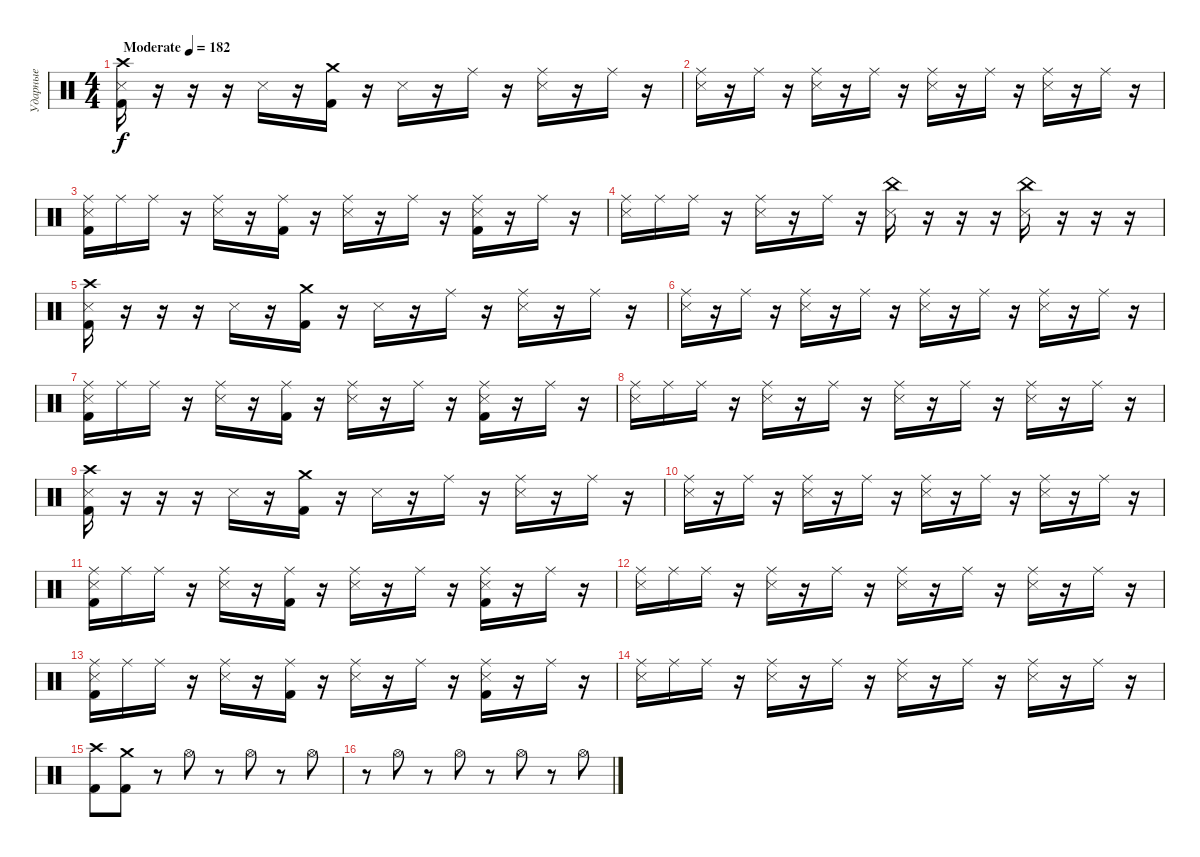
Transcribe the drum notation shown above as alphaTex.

\track ("Ударные" "Ударные") {instrument percussion}
\staff {score}
\articulation defaults
\ts (4 4)
\tempo (182 "Moderate")
\clef neutral
\ks c
("Crash high (hit)" "Snare (side stick) 3" "Kick (hit) 2").16{dy f} r.16 r.16 r.16 "Snare (side stick) 3".16 r.16 ("Crash medium (hit)" "Kick (hit) 2").16 r.16 "Snare (side stick) 3".16 r.16 "Ride (middle)".16 r.16 ("Ride (middle)" "Snare (side stick) 3").16 r.16 "Ride (middle)".16 r.16 |
("Ride (middle)" "Snare (side stick) 3").16 r.16 "Ride (middle)".16 r.16 ("Ride (middle)" "Snare (side stick) 3").16 r.16 "Ride (middle)".16 r.16 ("Ride (middle)" "Snare (side stick) 3").16 r.16 "Ride (middle)".16 r.16 ("Ride (middle)" "Snare (side stick) 3").16 r.16 "Ride (middle)".16 r.16 |
("Ride (middle)" "Snare (side stick) 3" "Kick (hit) 2").16 "Ride (middle)".16 "Ride (middle)".16 r.16 ("Ride (middle)" "Snare (side stick) 3").16 r.16 ("Ride (middle)" "Kick (hit) 2").16 r.16 ("Ride (middle)" "Snare (side stick) 3").16 r.16 "Ride (middle)".16 r.16 ("Ride (middle)" "Snare (side stick) 3" "Kick (hit) 2").16 r.16 "Ride (middle)".16 r.16 |
("Ride (middle)" "Snare (side stick) 3").16 "Ride (middle)".16 "Ride (middle)".16 r.16 ("Ride (middle)" "Snare (side stick) 3").16 r.16 "Ride (middle)".16 r.16 ("China (hit)" "Snare (side stick) 3").16 r.16 r.16 r.16 ("China (hit)" "Snare (side stick) 3").16 r.16 r.16 r.16 |
("Crash high (hit)" "Snare (side stick) 3" "Kick (hit) 2").16 r.16 r.16 r.16 "Snare (side stick) 3".16 r.16 ("Crash medium (hit)" "Kick (hit) 2").16 r.16 "Snare (side stick) 3".16 r.16 "Ride (middle)".16 r.16 ("Ride (middle)" "Snare (side stick) 3").16 r.16 "Ride (middle)".16 r.16 |
("Ride (middle)" "Snare (side stick) 3").16 r.16 "Ride (middle)".16 r.16 ("Ride (middle)" "Snare (side stick) 3").16 r.16 "Ride (middle)".16 r.16 ("Ride (middle)" "Snare (side stick) 3").16 r.16 "Ride (middle)".16 r.16 ("Ride (middle)" "Snare (side stick) 3").16 r.16 "Ride (middle)".16 r.16 |
("Ride (middle)" "Snare (side stick) 3" "Kick (hit) 2").16 "Ride (middle)".16 "Ride (middle)".16 r.16 ("Ride (middle)" "Snare (side stick) 3").16 r.16 ("Ride (middle)" "Kick (hit) 2").16 r.16 ("Ride (middle)" "Snare (side stick) 3").16 r.16 "Ride (middle)".16 r.16 ("Ride (middle)" "Snare (side stick) 3" "Kick (hit) 2").16 r.16 "Ride (middle)".16 r.16 |
("Ride (middle)" "Snare (side stick) 3").16 "Ride (middle)".16 "Ride (middle)".16 r.16 ("Ride (middle)" "Snare (side stick) 3").16 r.16 "Ride (middle)".16 r.16 ("Ride (middle)" "Snare (side stick) 3").16 r.16 "Ride (middle)".16 r.16 ("Ride (middle)" "Snare (side stick) 3").16 r.16 "Ride (middle)".16 r.16 |
("Crash high (hit)" "Snare (side stick) 3" "Kick (hit) 2").16 r.16 r.16 r.16 "Snare (side stick) 3".16 r.16 ("Crash medium (hit)" "Kick (hit) 2").16 r.16 "Snare (side stick) 3".16 r.16 "Ride (middle)".16 r.16 ("Ride (middle)" "Snare (side stick) 3").16 r.16 "Ride (middle)".16 r.16 |
("Ride (middle)" "Snare (side stick) 3").16 r.16 "Ride (middle)".16 r.16 ("Ride (middle)" "Snare (side stick) 3").16 r.16 "Ride (middle)".16 r.16 ("Ride (middle)" "Snare (side stick) 3").16 r.16 "Ride (middle)".16 r.16 ("Ride (middle)" "Snare (side stick) 3").16 r.16 "Ride (middle)".16 r.16 |
("Ride (middle)" "Snare (side stick) 3" "Kick (hit) 2").16 "Ride (middle)".16 "Ride (middle)".16 r.16 ("Ride (middle)" "Snare (side stick) 3").16 r.16 ("Ride (middle)" "Kick (hit) 2").16 r.16 ("Ride (middle)" "Snare (side stick) 3").16 r.16 "Ride (middle)".16 r.16 ("Ride (middle)" "Snare (side stick) 3" "Kick (hit) 2").16 r.16 "Ride (middle)".16 r.16 |
("Ride (middle)" "Snare (side stick) 3").16 "Ride (middle)".16 "Ride (middle)".16 r.16 ("Ride (middle)" "Snare (side stick) 3").16 r.16 "Ride (middle)".16 r.16 ("Ride (middle)" "Snare (side stick) 3").16 r.16 "Ride (middle)".16 r.16 ("Ride (middle)" "Snare (side stick) 3").16 r.16 "Ride (middle)".16 r.16 |
("Ride (middle)" "Snare (side stick) 3" "Kick (hit) 2").16 "Ride (middle)".16 "Ride (middle)".16 r.16 ("Ride (middle)" "Snare (side stick) 3").16 r.16 ("Ride (middle)" "Kick (hit) 2").16 r.16 ("Ride (middle)" "Snare (side stick) 3").16 r.16 "Ride (middle)".16 r.16 ("Ride (middle)" "Snare (side stick) 3" "Kick (hit) 2").16 r.16 "Ride (middle)".16 r.16 |
("Ride (middle)" "Snare (side stick) 3").16 "Ride (middle)".16 "Ride (middle)".16 r.16 ("Ride (middle)" "Snare (side stick) 3").16 r.16 "Ride (middle)".16 r.16 ("Ride (middle)" "Snare (side stick) 3").16 r.16 "Ride (middle)".16 r.16 ("Ride (middle)" "Snare (side stick) 3").16 r.16 "Ride (middle)".16 r.16 |
("Crash high (hit)" "Kick (hit) 2").8 ("Crash medium (hit)" "Kick (hit) 2").8 r.8 "Hi-Hat (open)".8 r.8 "Hi-Hat (open)".8 r.8 "Hi-Hat (open)".8 |
r.8 "Hi-Hat (open)".8 r.8 "Hi-Hat (open)".8 r.8 "Hi-Hat (open)".8 r.8 "Hi-Hat (open)".8
